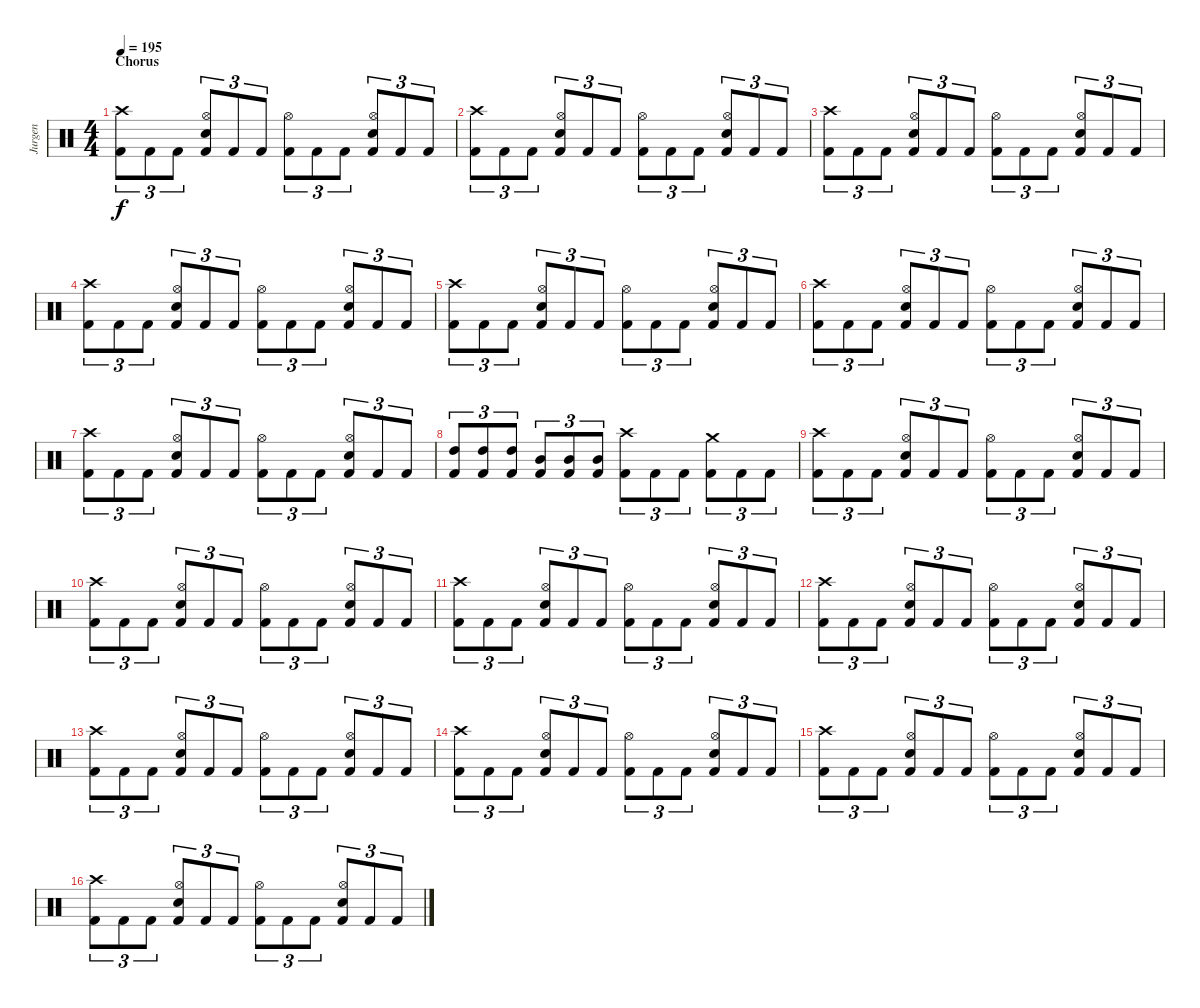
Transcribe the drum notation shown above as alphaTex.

\track ("Jurgen" "Jurgen") {instrument percussion}
\staff {score}
\articulation defaults
\ts (4 4)
\section ("" "Chorus")
\tempo 195
\clef neutral
\ks c
("Crash high (hit)" "Kick (hit) 2").8{tu (3 2) dy f} "Kick (hit) 2".8{tu (3 2)} "Kick (hit) 2".8{tu (3 2)} ("Hi-Hat (open)" "Snare (hit) 2" "Kick (hit) 2").8{tu (3 2)} "Kick (hit) 2".8{tu (3 2)} "Kick (hit) 2".8{tu (3 2)} ("Hi-Hat (open)" "Kick (hit) 2").8{tu (3 2)} "Kick (hit) 2".8{tu (3 2)} "Kick (hit) 2".8{tu (3 2)} ("Hi-Hat (open)" "Snare (hit) 2" "Kick (hit) 2").8{tu (3 2)} "Kick (hit) 2".8{tu (3 2)} "Kick (hit) 2".8{tu (3 2)} |
("Crash high (hit)" "Kick (hit) 2").8{tu (3 2)} "Kick (hit) 2".8{tu (3 2)} "Kick (hit) 2".8{tu (3 2)} ("Hi-Hat (open)" "Snare (hit) 2" "Kick (hit) 2").8{tu (3 2)} "Kick (hit) 2".8{tu (3 2)} "Kick (hit) 2".8{tu (3 2)} ("Hi-Hat (open)" "Kick (hit) 2").8{tu (3 2)} "Kick (hit) 2".8{tu (3 2)} "Kick (hit) 2".8{tu (3 2)} ("Hi-Hat (open)" "Snare (hit) 2" "Kick (hit) 2").8{tu (3 2)} "Kick (hit) 2".8{tu (3 2)} "Kick (hit) 2".8{tu (3 2)} |
("Crash high (hit)" "Kick (hit) 2").8{tu (3 2)} "Kick (hit) 2".8{tu (3 2)} "Kick (hit) 2".8{tu (3 2)} ("Hi-Hat (open)" "Snare (hit) 2" "Kick (hit) 2").8{tu (3 2)} "Kick (hit) 2".8{tu (3 2)} "Kick (hit) 2".8{tu (3 2)} ("Hi-Hat (open)" "Kick (hit) 2").8{tu (3 2)} "Kick (hit) 2".8{tu (3 2)} "Kick (hit) 2".8{tu (3 2)} ("Hi-Hat (open)" "Snare (hit) 2" "Kick (hit) 2").8{tu (3 2)} "Kick (hit) 2".8{tu (3 2)} "Kick (hit) 2".8{tu (3 2)} |
("Crash high (hit)" "Kick (hit) 2").8{tu (3 2)} "Kick (hit) 2".8{tu (3 2)} "Kick (hit) 2".8{tu (3 2)} ("Hi-Hat (open)" "Snare (hit) 2" "Kick (hit) 2").8{tu (3 2)} "Kick (hit) 2".8{tu (3 2)} "Kick (hit) 2".8{tu (3 2)} ("Hi-Hat (open)" "Kick (hit) 2").8{tu (3 2)} "Kick (hit) 2".8{tu (3 2)} "Kick (hit) 2".8{tu (3 2)} ("Hi-Hat (open)" "Snare (hit) 2" "Kick (hit) 2").8{tu (3 2)} "Kick (hit) 2".8{tu (3 2)} "Kick (hit) 2".8{tu (3 2)} |
("Crash high (hit)" "Kick (hit) 2").8{tu (3 2)} "Kick (hit) 2".8{tu (3 2)} "Kick (hit) 2".8{tu (3 2)} ("Hi-Hat (open)" "Snare (hit) 2" "Kick (hit) 2").8{tu (3 2)} "Kick (hit) 2".8{tu (3 2)} "Kick (hit) 2".8{tu (3 2)} ("Hi-Hat (open)" "Kick (hit) 2").8{tu (3 2)} "Kick (hit) 2".8{tu (3 2)} "Kick (hit) 2".8{tu (3 2)} ("Hi-Hat (open)" "Snare (hit) 2" "Kick (hit) 2").8{tu (3 2)} "Kick (hit) 2".8{tu (3 2)} "Kick (hit) 2".8{tu (3 2)} |
("Crash high (hit)" "Kick (hit) 2").8{tu (3 2)} "Kick (hit) 2".8{tu (3 2)} "Kick (hit) 2".8{tu (3 2)} ("Hi-Hat (open)" "Snare (hit) 2" "Kick (hit) 2").8{tu (3 2)} "Kick (hit) 2".8{tu (3 2)} "Kick (hit) 2".8{tu (3 2)} ("Hi-Hat (open)" "Kick (hit) 2").8{tu (3 2)} "Kick (hit) 2".8{tu (3 2)} "Kick (hit) 2".8{tu (3 2)} ("Hi-Hat (open)" "Snare (hit) 2" "Kick (hit) 2").8{tu (3 2)} "Kick (hit) 2".8{tu (3 2)} "Kick (hit) 2".8{tu (3 2)} |
("Crash high (hit)" "Kick (hit) 2").8{tu (3 2)} "Kick (hit) 2".8{tu (3 2)} "Kick (hit) 2".8{tu (3 2)} ("Hi-Hat (open)" "Snare (hit) 2" "Kick (hit) 2").8{tu (3 2)} "Kick (hit) 2".8{tu (3 2)} "Kick (hit) 2".8{tu (3 2)} ("Hi-Hat (open)" "Kick (hit) 2").8{tu (3 2)} "Kick (hit) 2".8{tu (3 2)} "Kick (hit) 2".8{tu (3 2)} ("Hi-Hat (open)" "Snare (hit) 2" "Kick (hit) 2").8{tu (3 2)} "Kick (hit) 2".8{tu (3 2)} "Kick (hit) 2".8{tu (3 2)} |
("High Tom (hit)" "Kick (hit) 2").8{tu (3 2)} ("High Tom (hit)" "Kick (hit) 2").8{tu (3 2)} ("High Tom (hit)" "Kick (hit) 2").8{tu (3 2)} ("Mid Tom (hit)" "Kick (hit) 2").8{tu (3 2)} ("Mid Tom (hit)" "Kick (hit) 2").8{tu (3 2)} ("Mid Tom (hit)" "Kick (hit) 2").8{tu (3 2)} ("Crash high (hit)" "Kick (hit) 2").8{tu (3 2)} "Kick (hit) 2".8{tu (3 2)} "Kick (hit) 2".8{tu (3 2)} ("Crash medium (hit)" "Kick (hit) 2").8{tu (3 2)} "Kick (hit) 2".8{tu (3 2)} "Kick (hit) 2".8{tu (3 2)} |
("Crash high (hit)" "Kick (hit) 2").8{tu (3 2)} "Kick (hit) 2".8{tu (3 2)} "Kick (hit) 2".8{tu (3 2)} ("Hi-Hat (open)" "Snare (hit) 2" "Kick (hit) 2").8{tu (3 2)} "Kick (hit) 2".8{tu (3 2)} "Kick (hit) 2".8{tu (3 2)} ("Hi-Hat (open)" "Kick (hit) 2").8{tu (3 2)} "Kick (hit) 2".8{tu (3 2)} "Kick (hit) 2".8{tu (3 2)} ("Hi-Hat (open)" "Snare (hit) 2" "Kick (hit) 2").8{tu (3 2)} "Kick (hit) 2".8{tu (3 2)} "Kick (hit) 2".8{tu (3 2)} |
("Crash high (hit)" "Kick (hit) 2").8{tu (3 2)} "Kick (hit) 2".8{tu (3 2)} "Kick (hit) 2".8{tu (3 2)} ("Hi-Hat (open)" "Snare (hit) 2" "Kick (hit) 2").8{tu (3 2)} "Kick (hit) 2".8{tu (3 2)} "Kick (hit) 2".8{tu (3 2)} ("Hi-Hat (open)" "Kick (hit) 2").8{tu (3 2)} "Kick (hit) 2".8{tu (3 2)} "Kick (hit) 2".8{tu (3 2)} ("Hi-Hat (open)" "Snare (hit) 2" "Kick (hit) 2").8{tu (3 2)} "Kick (hit) 2".8{tu (3 2)} "Kick (hit) 2".8{tu (3 2)} |
("Crash high (hit)" "Kick (hit) 2").8{tu (3 2)} "Kick (hit) 2".8{tu (3 2)} "Kick (hit) 2".8{tu (3 2)} ("Hi-Hat (open)" "Snare (hit) 2" "Kick (hit) 2").8{tu (3 2)} "Kick (hit) 2".8{tu (3 2)} "Kick (hit) 2".8{tu (3 2)} ("Hi-Hat (open)" "Kick (hit) 2").8{tu (3 2)} "Kick (hit) 2".8{tu (3 2)} "Kick (hit) 2".8{tu (3 2)} ("Hi-Hat (open)" "Snare (hit) 2" "Kick (hit) 2").8{tu (3 2)} "Kick (hit) 2".8{tu (3 2)} "Kick (hit) 2".8{tu (3 2)} |
("Crash high (hit)" "Kick (hit) 2").8{tu (3 2)} "Kick (hit) 2".8{tu (3 2)} "Kick (hit) 2".8{tu (3 2)} ("Hi-Hat (open)" "Snare (hit) 2" "Kick (hit) 2").8{tu (3 2)} "Kick (hit) 2".8{tu (3 2)} "Kick (hit) 2".8{tu (3 2)} ("Hi-Hat (open)" "Kick (hit) 2").8{tu (3 2)} "Kick (hit) 2".8{tu (3 2)} "Kick (hit) 2".8{tu (3 2)} ("Hi-Hat (open)" "Snare (hit) 2" "Kick (hit) 2").8{tu (3 2)} "Kick (hit) 2".8{tu (3 2)} "Kick (hit) 2".8{tu (3 2)} |
("Crash high (hit)" "Kick (hit) 2").8{tu (3 2)} "Kick (hit) 2".8{tu (3 2)} "Kick (hit) 2".8{tu (3 2)} ("Hi-Hat (open)" "Snare (hit) 2" "Kick (hit) 2").8{tu (3 2)} "Kick (hit) 2".8{tu (3 2)} "Kick (hit) 2".8{tu (3 2)} ("Hi-Hat (open)" "Kick (hit) 2").8{tu (3 2)} "Kick (hit) 2".8{tu (3 2)} "Kick (hit) 2".8{tu (3 2)} ("Hi-Hat (open)" "Snare (hit) 2" "Kick (hit) 2").8{tu (3 2)} "Kick (hit) 2".8{tu (3 2)} "Kick (hit) 2".8{tu (3 2)} |
("Crash high (hit)" "Kick (hit) 2").8{tu (3 2)} "Kick (hit) 2".8{tu (3 2)} "Kick (hit) 2".8{tu (3 2)} ("Hi-Hat (open)" "Snare (hit) 2" "Kick (hit) 2").8{tu (3 2)} "Kick (hit) 2".8{tu (3 2)} "Kick (hit) 2".8{tu (3 2)} ("Hi-Hat (open)" "Kick (hit) 2").8{tu (3 2)} "Kick (hit) 2".8{tu (3 2)} "Kick (hit) 2".8{tu (3 2)} ("Hi-Hat (open)" "Snare (hit) 2" "Kick (hit) 2").8{tu (3 2)} "Kick (hit) 2".8{tu (3 2)} "Kick (hit) 2".8{tu (3 2)} |
("Crash high (hit)" "Kick (hit) 2").8{tu (3 2)} "Kick (hit) 2".8{tu (3 2)} "Kick (hit) 2".8{tu (3 2)} ("Hi-Hat (open)" "Snare (hit) 2" "Kick (hit) 2").8{tu (3 2)} "Kick (hit) 2".8{tu (3 2)} "Kick (hit) 2".8{tu (3 2)} ("Hi-Hat (open)" "Kick (hit) 2").8{tu (3 2)} "Kick (hit) 2".8{tu (3 2)} "Kick (hit) 2".8{tu (3 2)} ("Hi-Hat (open)" "Snare (hit) 2" "Kick (hit) 2").8{tu (3 2)} "Kick (hit) 2".8{tu (3 2)} "Kick (hit) 2".8{tu (3 2)} |
("Crash high (hit)" "Kick (hit) 2").8{tu (3 2)} "Kick (hit) 2".8{tu (3 2)} "Kick (hit) 2".8{tu (3 2)} ("Hi-Hat (open)" "Snare (hit) 2" "Kick (hit) 2").8{tu (3 2)} "Kick (hit) 2".8{tu (3 2)} "Kick (hit) 2".8{tu (3 2)} ("Hi-Hat (open)" "Kick (hit) 2").8{tu (3 2)} "Kick (hit) 2".8{tu (3 2)} "Kick (hit) 2".8{tu (3 2)} ("Hi-Hat (open)" "Snare (hit) 2" "Kick (hit) 2").8{tu (3 2)} "Kick (hit) 2".8{tu (3 2)} "Kick (hit) 2".8{tu (3 2)}
